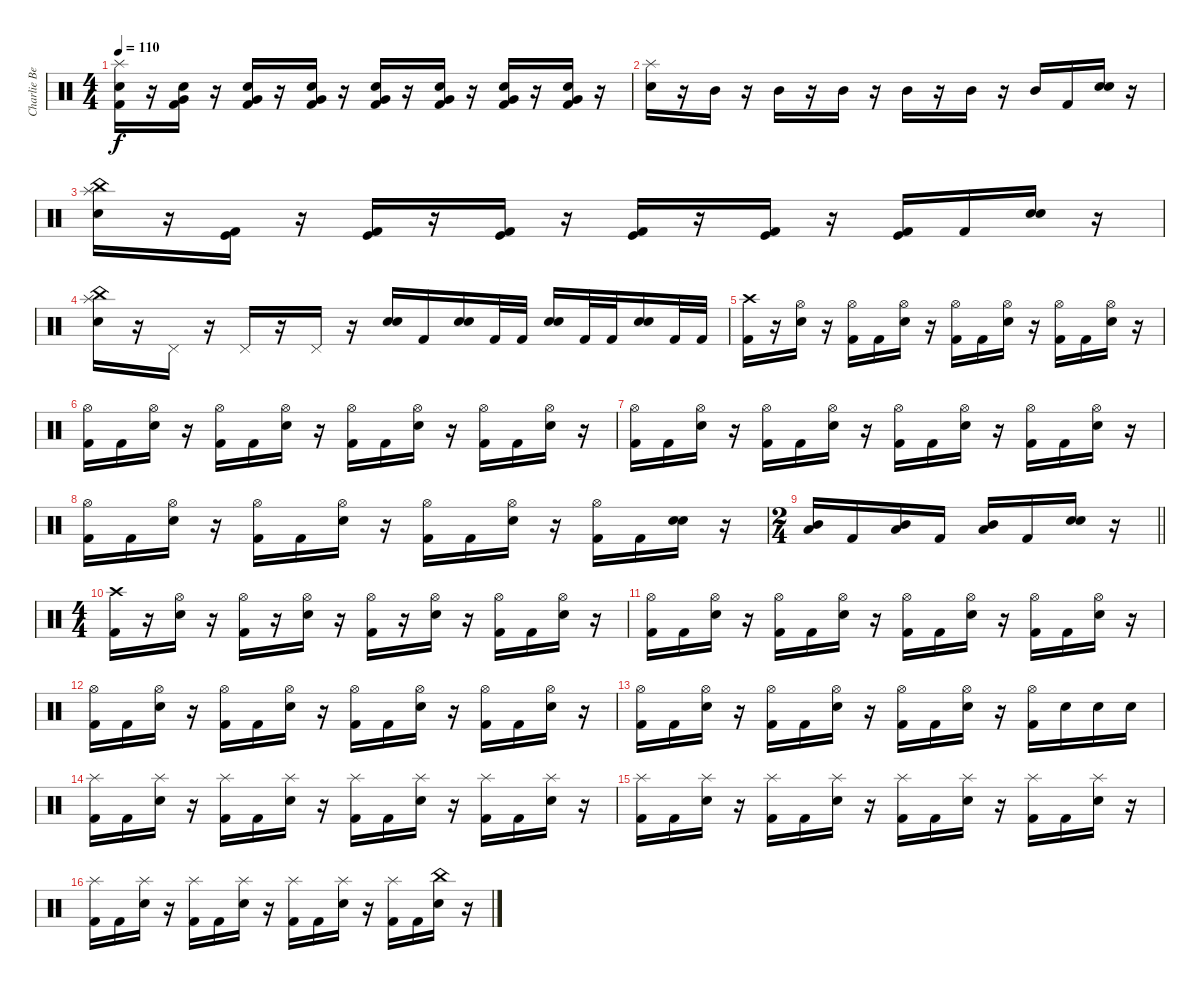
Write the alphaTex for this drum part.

\track ("Charlie Benante" "Charlie Be") {instrument percussion}
\staff {score}
\articulation defaults
\ts (4 4)
\tempo 110
\clef neutral
\ks c
("Splash (hit)" "Electric Snare (hit)" "Kick (hit) 2").16{dy f} r.16 ("Very Low Tom (hit)" "Electric Snare (hit)" "Kick (hit) 2").16 r.16 ("Very Low Tom (hit)" "Electric Snare (hit)" "Kick (hit) 2").16 r.16 ("Very Low Tom (hit)" "Electric Snare (hit)" "Kick (hit) 2").16 r.16 ("Very Low Tom (hit)" "Electric Snare (hit)" "Kick (hit) 2").16 r.16 ("Very Low Tom (hit)" "Electric Snare (hit)" "Kick (hit) 2").16 r.16 ("Very Low Tom (hit)" "Electric Snare (hit)" "Kick (hit) 2").16 r.16 ("Very Low Tom (hit)" "Electric Snare (hit)" "Kick (hit) 2").16 r.16 |
("Splash (hit)" "Electric Snare (hit)").16 r.16 "Mid Tom (hit)".16 r.16 "Mid Tom (hit)".16 r.16 "Mid Tom (hit)".16 r.16 "Mid Tom (hit)".16 r.16 "Mid Tom (hit)".16 r.16 "Mid Tom (hit)".16 "Kick (hit) 2".16 ("Snare (hit) 2" "Electric Snare (hit)").16 r.16 |
("China (hit)" "Splash (hit)" "Electric Snare (hit)").16 r.16 ("Kick (hit)" "Kick (hit) 2").16 r.16 ("Kick (hit)" "Kick (hit) 2").16 r.16 ("Kick (hit)" "Kick (hit) 2").16 r.16 ("Kick (hit)" "Kick (hit) 2").16 r.16 ("Kick (hit)" "Kick (hit) 2").16 r.16 ("Kick (hit)" "Kick (hit) 2").16 "Kick (hit) 2".16 ("Snare (hit) 2" "Electric Snare (hit)").16 r.16 |
("China (hit)" "Splash (hit)" "Electric Snare (hit)").16 r.16 "Pedal Hi-Hat (hit)".16 r.16 "Pedal Hi-Hat (hit)".16 r.16 "Pedal Hi-Hat (hit)".16 r.16 ("Snare (hit) 2" "Electric Snare (hit)").16 "Kick (hit) 2".16 ("Snare (hit) 2" "Electric Snare (hit)").16 "Kick (hit) 2".32 "Kick (hit) 2".32 ("Snare (hit) 2" "Electric Snare (hit)").16 "Kick (hit) 2".32 "Kick (hit) 2".32 ("Snare (hit) 2" "Electric Snare (hit)").16 "Kick (hit) 2".32 "Kick (hit) 2".32 |
("Crash high (hit)" "Kick (hit) 2").16 r.16 ("Hi-Hat (open)" "Electric Snare (hit)").16 r.16 ("Hi-Hat (open)" "Kick (hit) 2").16 "Kick (hit) 2".16 ("Hi-Hat (open)" "Electric Snare (hit)").16 r.16 ("Hi-Hat (open)" "Kick (hit) 2").16 "Kick (hit) 2".16 ("Hi-Hat (open)" "Electric Snare (hit)").16 r.16 ("Hi-Hat (open)" "Kick (hit) 2").16 "Kick (hit) 2".16 ("Hi-Hat (open)" "Electric Snare (hit)").16 r.16 |
("Hi-Hat (open)" "Kick (hit) 2").16 "Kick (hit) 2".16 ("Hi-Hat (open)" "Electric Snare (hit)").16 r.16 ("Hi-Hat (open)" "Kick (hit) 2").16 "Kick (hit) 2".16 ("Hi-Hat (open)" "Electric Snare (hit)").16 r.16 ("Hi-Hat (open)" "Kick (hit) 2").16 "Kick (hit) 2".16 ("Hi-Hat (open)" "Electric Snare (hit)").16 r.16 ("Hi-Hat (open)" "Kick (hit) 2").16 "Kick (hit) 2".16 ("Hi-Hat (open)" "Electric Snare (hit)").16 r.16 |
("Hi-Hat (open)" "Kick (hit) 2").16 "Kick (hit) 2".16 ("Hi-Hat (open)" "Electric Snare (hit)").16 r.16 ("Hi-Hat (open)" "Kick (hit) 2").16 "Kick (hit) 2".16 ("Hi-Hat (open)" "Electric Snare (hit)").16 r.16 ("Hi-Hat (open)" "Kick (hit) 2").16 "Kick (hit) 2".16 ("Hi-Hat (open)" "Electric Snare (hit)").16 r.16 ("Hi-Hat (open)" "Kick (hit) 2").16 "Kick (hit) 2".16 ("Hi-Hat (open)" "Electric Snare (hit)").16 r.16 |
("Hi-Hat (open)" "Kick (hit) 2").16 "Kick (hit) 2".16 ("Hi-Hat (open)" "Electric Snare (hit)").16 r.16 ("Hi-Hat (open)" "Kick (hit) 2").16 "Kick (hit) 2".16 ("Hi-Hat (open)" "Electric Snare (hit)").16 r.16 ("Hi-Hat (open)" "Kick (hit) 2").16 "Kick (hit) 2".16 ("Hi-Hat (open)" "Electric Snare (hit)").16 r.16 ("Hi-Hat (open)" "Kick (hit) 2").16 "Kick (hit) 2".16 ("Snare (hit) 2" "Electric Snare (hit)").16 r.16 |
\ts (2 4)
\barLineRight lightlight
("Low Tom (hit)" "Mid Tom (hit)").16 "Kick (hit) 2".16 ("Low Tom (hit)" "Mid Tom (hit)").16 "Kick (hit) 2".16 ("Low Tom (hit)" "Mid Tom (hit)").16 "Kick (hit) 2".16 ("Snare (hit) 2" "Electric Snare (hit)").16 r.16 |
\ts (4 4)
("Crash high (hit)" "Kick (hit) 2").16 r.16 ("Hi-Hat (open)" "Electric Snare (hit)").16 r.16 ("Hi-Hat (open)" "Kick (hit) 2").16 r.16 ("Hi-Hat (open)" "Electric Snare (hit)").16 r.16 ("Hi-Hat (open)" "Kick (hit) 2").16 r.16 ("Hi-Hat (open)" "Electric Snare (hit)").16 r.16 ("Hi-Hat (open)" "Kick (hit) 2").16 "Kick (hit) 2".16 ("Hi-Hat (open)" "Electric Snare (hit)").16 r.16 |
("Hi-Hat (open)" "Kick (hit) 2").16 "Kick (hit) 2".16 ("Hi-Hat (open)" "Electric Snare (hit)").16 r.16 ("Hi-Hat (open)" "Kick (hit) 2").16 "Kick (hit) 2".16 ("Hi-Hat (open)" "Electric Snare (hit)").16 r.16 ("Hi-Hat (open)" "Kick (hit) 2").16 "Kick (hit) 2".16 ("Hi-Hat (open)" "Electric Snare (hit)").16 r.16 ("Hi-Hat (open)" "Kick (hit) 2").16 "Kick (hit) 2".16 ("Hi-Hat (open)" "Electric Snare (hit)").16 r.16 |
("Hi-Hat (open)" "Kick (hit) 2").16 "Kick (hit) 2".16 ("Hi-Hat (open)" "Electric Snare (hit)").16 r.16 ("Hi-Hat (open)" "Kick (hit) 2").16 "Kick (hit) 2".16 ("Hi-Hat (open)" "Electric Snare (hit)").16 r.16 ("Hi-Hat (open)" "Kick (hit) 2").16 "Kick (hit) 2".16 ("Hi-Hat (open)" "Electric Snare (hit)").16 r.16 ("Hi-Hat (open)" "Kick (hit) 2").16 "Kick (hit) 2".16 ("Hi-Hat (open)" "Electric Snare (hit)").16 r.16 |
("Hi-Hat (open)" "Kick (hit) 2").16 "Kick (hit) 2".16 ("Hi-Hat (open)" "Electric Snare (hit)").16 r.16 ("Hi-Hat (open)" "Kick (hit) 2").16 "Kick (hit) 2".16 ("Hi-Hat (open)" "Electric Snare (hit)").16 r.16 ("Hi-Hat (open)" "Kick (hit) 2").16 "Kick (hit) 2".16 ("Hi-Hat (open)" "Electric Snare (hit)").16 r.16 ("Hi-Hat (open)" "Kick (hit) 2").16 "Electric Snare (hit)".16 "Snare (hit) 2".16 "Electric Snare (hit)".16 |
("Splash (hit)" "Kick (hit) 2").16 "Kick (hit) 2".16 ("Splash (hit)" "Electric Snare (hit)").16 r.16 ("Splash (hit)" "Kick (hit) 2").16 "Kick (hit) 2".16 ("Splash (hit)" "Electric Snare (hit)").16 r.16 ("Splash (hit)" "Kick (hit) 2").16 "Kick (hit) 2".16 ("Splash (hit)" "Electric Snare (hit)").16 r.16 ("Splash (hit)" "Kick (hit) 2").16 "Kick (hit) 2".16 ("Splash (hit)" "Electric Snare (hit)").16 r.16 |
("Splash (hit)" "Kick (hit) 2").16 "Kick (hit) 2".16 ("Splash (hit)" "Electric Snare (hit)").16 r.16 ("Splash (hit)" "Kick (hit) 2").16 "Kick (hit) 2".16 ("Splash (hit)" "Electric Snare (hit)").16 r.16 ("Splash (hit)" "Kick (hit) 2").16 "Kick (hit) 2".16 ("Splash (hit)" "Electric Snare (hit)").16 r.16 ("Splash (hit)" "Kick (hit) 2").16 "Kick (hit) 2".16 ("Splash (hit)" "Electric Snare (hit)").16 r.16 |
("Splash (hit)" "Kick (hit) 2").16 "Kick (hit) 2".16 ("Splash (hit)" "Electric Snare (hit)").16 r.16 ("Splash (hit)" "Kick (hit) 2").16 "Kick (hit) 2".16 ("Splash (hit)" "Electric Snare (hit)").16 r.16 ("Splash (hit)" "Kick (hit) 2").16 "Kick (hit) 2".16 ("Splash (hit)" "Electric Snare (hit)").16 r.16 ("Splash (hit)" "Kick (hit) 2").16 "Kick (hit) 2".16 ("China (hit)" "Electric Snare (hit)").16 r.16
